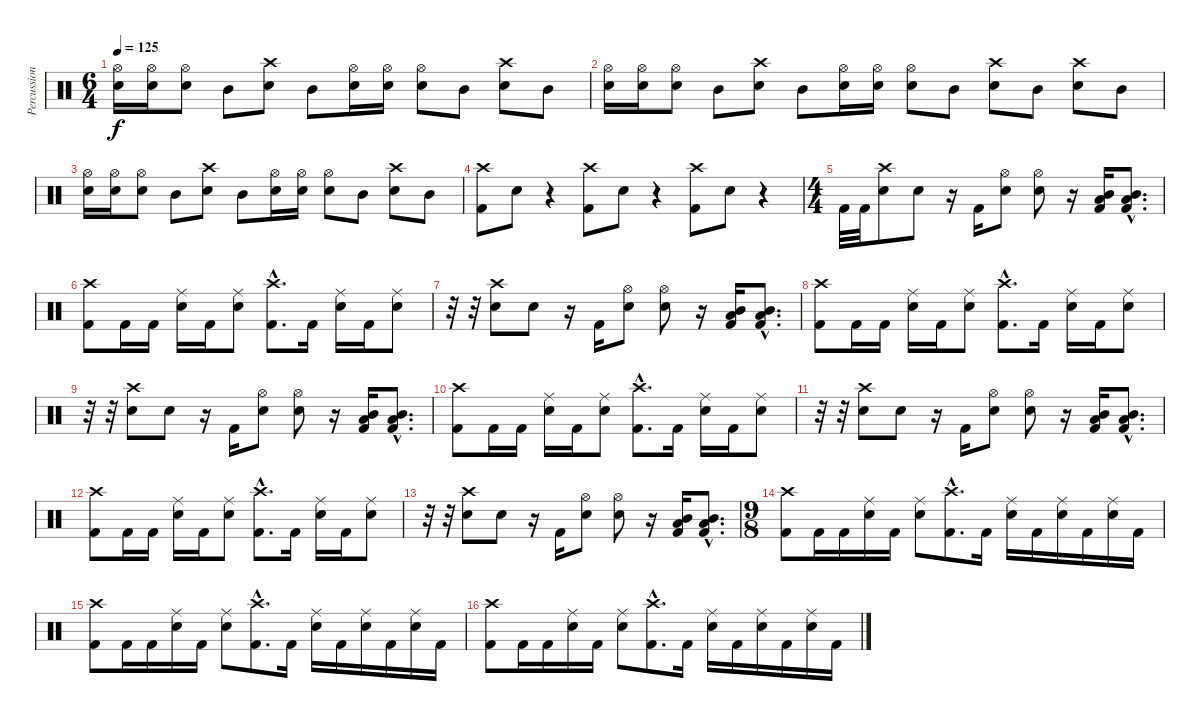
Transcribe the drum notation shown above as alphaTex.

\track ("Percussion" "Percussion") {instrument percussion}
\staff {score}
\articulation defaults
\ts (6 4)
\tempo 125
\clef neutral
\ks c
("Hi-Hat (open)" "Electric Snare (hit)").16{dy f} ("Hi-Hat (open)" "Electric Snare (hit)").16 ("Hi-Hat (open)" "Electric Snare (hit)").8 "Mid Tom (hit)".8 ("Crash high (hit)" "Electric Snare (hit)").8 "Mid Tom (hit)".8 ("Hi-Hat (open)" "Electric Snare (hit)").16 ("Hi-Hat (open)" "Electric Snare (hit)").16 ("Hi-Hat (open)" "Electric Snare (hit)").8 "Mid Tom (hit)".8 ("Crash high (hit)" "Electric Snare (hit)").8 "Mid Tom (hit)".8 |
("Hi-Hat (open)" "Electric Snare (hit)").16 ("Hi-Hat (open)" "Electric Snare (hit)").16 ("Hi-Hat (open)" "Electric Snare (hit)").8 "Mid Tom (hit)".8 ("Crash high (hit)" "Electric Snare (hit)").8 "Mid Tom (hit)".8 ("Hi-Hat (open)" "Electric Snare (hit)").16 ("Hi-Hat (open)" "Electric Snare (hit)").16 ("Hi-Hat (open)" "Electric Snare (hit)").8 "Mid Tom (hit)".8 ("Crash high (hit)" "Electric Snare (hit)").8 "Mid Tom (hit)".8 ("Crash high (hit)" "Electric Snare (hit)").8 "Mid Tom (hit)".8 |
("Hi-Hat (open)" "Electric Snare (hit)").16 ("Hi-Hat (open)" "Electric Snare (hit)").16 ("Hi-Hat (open)" "Electric Snare (hit)").8 "Mid Tom (hit)".8 ("Crash high (hit)" "Electric Snare (hit)").8 "Mid Tom (hit)".8 ("Hi-Hat (open)" "Electric Snare (hit)").16 ("Hi-Hat (open)" "Electric Snare (hit)").16 ("Hi-Hat (open)" "Electric Snare (hit)").8 "Mid Tom (hit)".8 ("Crash high (hit)" "Electric Snare (hit)").8 "Mid Tom (hit)".8 |
("Crash high (hit)" "Kick (hit) 2").8 "Snare (hit)"{x}.8 r.4 ("Crash high (hit)" "Kick (hit) 2").8 "Snare (hit)"{x}.8 r.4 ("Crash high (hit)" "Kick (hit) 2").8 "Snare (hit)"{x}.8 r.4 |
\ts (4 4)
"Kick (hit) 2".32 "Kick (hit) 2".32 ("Crash high (hit)" "Electric Snare (hit)").8 "Electric Snare (hit)".8 r.16 "Kick (hit) 2".16 ("Hi-Hat (open)" "Electric Snare (hit)").8 ("Hi-Hat (open)" "Electric Snare (hit)").8 r.16 ("Low Tom (hit)" "Mid Tom (hit)" "Kick (hit) 2").16 ("Low Tom (hit)"{hac} "Mid Tom (hit)"{hac} "Kick (hit) 2"{hac}).8{d} |
("Crash high (hit)" "Kick (hit) 2").8 "Kick (hit) 2".16 "Kick (hit) 2".16 ("Ride (middle)" "Electric Snare (hit)").16 "Kick (hit) 2".16 ("Ride (middle)" "Electric Snare (hit)").8 ("Crash high (hit)"{hac} "Kick (hit) 2"{hac}).8{d} "Kick (hit) 2".16 ("Ride (middle)" "Electric Snare (hit)").16 "Kick (hit) 2".16 ("Ride (middle)" "Electric Snare (hit)").8 |
r.32 r.32 ("Crash high (hit)" "Electric Snare (hit)").8 "Electric Snare (hit)".8 r.16 "Kick (hit) 2".16 ("Hi-Hat (open)" "Electric Snare (hit)").8 ("Hi-Hat (open)" "Electric Snare (hit)").8 r.16 ("Low Tom (hit)" "Mid Tom (hit)" "Kick (hit) 2").16 ("Low Tom (hit)"{hac} "Mid Tom (hit)"{hac} "Kick (hit) 2"{hac}).8{d} |
("Crash high (hit)" "Kick (hit) 2").8 "Kick (hit) 2".16 "Kick (hit) 2".16 ("Ride (middle)" "Electric Snare (hit)").16 "Kick (hit) 2".16 ("Ride (middle)" "Electric Snare (hit)").8 ("Crash high (hit)"{hac} "Kick (hit) 2"{hac}).8{d} "Kick (hit) 2".16 ("Ride (middle)" "Electric Snare (hit)").16 "Kick (hit) 2".16 ("Ride (middle)" "Electric Snare (hit)").8 |
r.32 r.32 ("Crash high (hit)" "Electric Snare (hit)").8 "Electric Snare (hit)".8 r.16 "Kick (hit) 2".16 ("Hi-Hat (open)" "Electric Snare (hit)").8 ("Hi-Hat (open)" "Electric Snare (hit)").8 r.16 ("Low Tom (hit)" "Mid Tom (hit)" "Kick (hit) 2").16 ("Low Tom (hit)"{hac} "Mid Tom (hit)"{hac} "Kick (hit) 2"{hac}).8{d} |
("Crash high (hit)" "Kick (hit) 2").8 "Kick (hit) 2".16 "Kick (hit) 2".16 ("Ride (middle)" "Electric Snare (hit)").16 "Kick (hit) 2".16 ("Ride (middle)" "Electric Snare (hit)").8 ("Crash high (hit)"{hac} "Kick (hit) 2"{hac}).8{d} "Kick (hit) 2".16 ("Ride (middle)" "Electric Snare (hit)").16 "Kick (hit) 2".16 ("Ride (middle)" "Electric Snare (hit)").8 |
r.32 r.32 ("Crash high (hit)" "Electric Snare (hit)").8 "Electric Snare (hit)".8 r.16 "Kick (hit) 2".16 ("Hi-Hat (open)" "Electric Snare (hit)").8 ("Hi-Hat (open)" "Electric Snare (hit)").8 r.16 ("Low Tom (hit)" "Mid Tom (hit)" "Kick (hit) 2").16 ("Low Tom (hit)"{hac} "Mid Tom (hit)"{hac} "Kick (hit) 2"{hac}).8{d} |
("Crash high (hit)" "Kick (hit) 2").8 "Kick (hit) 2".16 "Kick (hit) 2".16 ("Ride (middle)" "Electric Snare (hit)").16 "Kick (hit) 2".16 ("Ride (middle)" "Electric Snare (hit)").8 ("Crash high (hit)"{hac} "Kick (hit) 2"{hac}).8{d} "Kick (hit) 2".16 ("Ride (middle)" "Electric Snare (hit)").16 "Kick (hit) 2".16 ("Ride (middle)" "Electric Snare (hit)").8 |
r.32 r.32 ("Crash high (hit)" "Electric Snare (hit)").8 "Electric Snare (hit)".8 r.16 "Kick (hit) 2".16 ("Hi-Hat (open)" "Electric Snare (hit)").8 ("Hi-Hat (open)" "Electric Snare (hit)").8 r.16 ("Low Tom (hit)" "Mid Tom (hit)" "Kick (hit) 2").16 ("Low Tom (hit)"{hac} "Mid Tom (hit)"{hac} "Kick (hit) 2"{hac}).8{d} |
\ts (9 8)
("Crash high (hit)" "Kick (hit) 2").8 "Kick (hit) 2".16 "Kick (hit) 2".16 ("Ride (middle)" "Electric Snare (hit)").16 "Kick (hit) 2".16 ("Ride (middle)" "Electric Snare (hit)").8 ("Crash high (hit)"{hac} "Kick (hit) 2"{hac}).8{d} "Kick (hit) 2".16 ("Ride (middle)" "Electric Snare (hit)").16 "Kick (hit) 2".16 ("Ride (middle)" "Electric Snare (hit)").16 "Kick (hit) 2".16 ("Ride (middle)" "Electric Snare (hit)").16 "Kick (hit) 2".16 |
("Crash high (hit)" "Kick (hit) 2").8 "Kick (hit) 2".16 "Kick (hit) 2".16 ("Ride (middle)" "Electric Snare (hit)").16 "Kick (hit) 2".16 ("Ride (middle)" "Electric Snare (hit)").8 ("Crash high (hit)"{hac} "Kick (hit) 2"{hac}).8{d} "Kick (hit) 2".16 ("Ride (middle)" "Electric Snare (hit)").16 "Kick (hit) 2".16 ("Ride (middle)" "Electric Snare (hit)").16 "Kick (hit) 2".16 ("Ride (middle)" "Electric Snare (hit)").16 "Kick (hit) 2".16 |
("Crash high (hit)" "Kick (hit) 2").8 "Kick (hit) 2".16 "Kick (hit) 2".16 ("Ride (middle)" "Electric Snare (hit)").16 "Kick (hit) 2".16 ("Ride (middle)" "Electric Snare (hit)").8 ("Crash high (hit)"{hac} "Kick (hit) 2"{hac}).8{d} "Kick (hit) 2".16 ("Ride (middle)" "Electric Snare (hit)").16 "Kick (hit) 2".16 ("Ride (middle)" "Electric Snare (hit)").16 "Kick (hit) 2".16 ("Ride (middle)" "Electric Snare (hit)").16 "Kick (hit) 2".16
